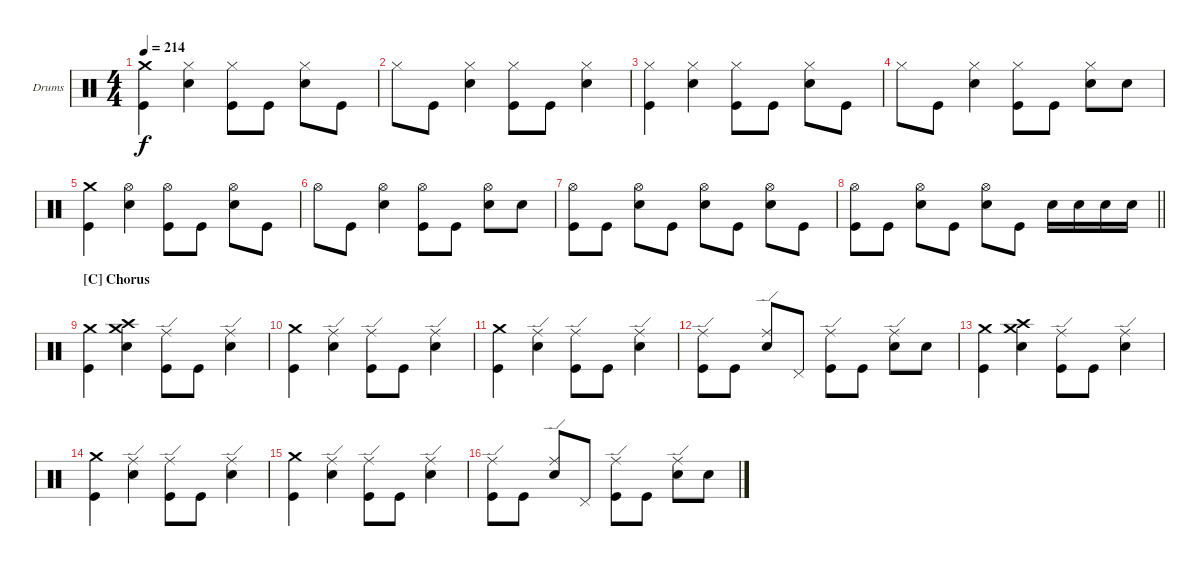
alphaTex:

\bracketExtendMode groupsimilarinstruments
\firstSystemTrackNameOrientation horizontal
\otherSystemsTrackNameOrientation horizontal
\track ("Drumkit" "Drums") {instrument percussion}
\staff {score}
\articulation defaults
\ts (4 4)
\tempo 214
\clef neutral
\ks c
("Kick (hit)" "Crash medium (hit)").4{dy f} ("Snare (hit) 2" "Hi-Hat (closed)").4 ("Kick (hit)" "Hi-Hat (closed)").8 "Kick (hit)".8 ("Snare (hit) 2" "Hi-Hat (closed)").8 "Kick (hit)".8 |
"Hi-Hat (closed)".8 "Kick (hit)".8 ("Snare (hit) 2" "Hi-Hat (closed)").4 ("Kick (hit)" "Hi-Hat (closed)").8 "Kick (hit)".8 ("Snare (hit) 2" "Hi-Hat (closed)").4 |
("Kick (hit)" "Hi-Hat (closed)").4 ("Snare (hit) 2" "Hi-Hat (closed)").4 ("Kick (hit)" "Hi-Hat (closed)").8 "Kick (hit)".8 ("Snare (hit) 2" "Hi-Hat (closed)").8 "Kick (hit)".8 |
"Hi-Hat (closed)".8 "Kick (hit)".8 ("Snare (hit) 2" "Hi-Hat (closed)").4 ("Kick (hit)" "Hi-Hat (closed)").8 "Kick (hit)".8 ("Snare (hit) 2" "Hi-Hat (closed)").8 "Snare (hit) 2".8 |
("Kick (hit)" "Crash medium (hit)").4 ("Snare (hit) 2" "Hi-Hat (open)").4 ("Kick (hit)" "Hi-Hat (open)").8 "Kick (hit)".8 ("Snare (hit) 2" "Hi-Hat (open)").8 "Kick (hit)".8 |
"Hi-Hat (open)".8 "Kick (hit)".8 ("Snare (hit) 2" "Hi-Hat (open)").4 ("Kick (hit)" "Hi-Hat (open)").8 "Kick (hit)".8 ("Snare (hit) 2" "Hi-Hat (open)").8 "Snare (hit) 2".8 |
("Hi-Hat (open)" "Kick (hit)").8 "Kick (hit)".8 ("Snare (hit) 2" "Hi-Hat (open)").8 "Kick (hit)".8 ("Snare (hit) 2" "Hi-Hat (open)").8 "Kick (hit)".8 ("Snare (hit) 2" "Hi-Hat (open)").8 "Kick (hit)".8 |
\barLineRight lightlight
("Kick (hit)" "Hi-Hat (open)").8 "Kick (hit)".8 ("Snare (hit) 2" "Hi-Hat (open)").8 "Kick (hit)".8 ("Snare (hit) 2" "Hi-Hat (open)").8 "Kick (hit)".8 "Snare (hit) 2".16 "Snare (hit) 2".16 "Snare (hit) 2".16 "Snare (hit) 2".16 |
\section ("C" "Chorus")
("Crash medium (hit)" "Kick (hit)").4 ("Snare (hit) 2" "Crash medium (hit)" "Crash high (hit)").4 ("Ride (edge)" "Kick (hit)").8 "Kick (hit)".8 ("Ride (edge)" "Snare (hit) 2").4 |
("Crash medium (hit)" "Kick (hit)").4 ("Ride (edge)" "Snare (hit) 2").4 ("Ride (edge)" "Kick (hit)").8 "Kick (hit)".8 ("Ride (edge)" "Snare (hit) 2").4 |
("Crash medium (hit)" "Kick (hit)").4 ("Ride (edge)" "Snare (hit) 2").4 ("Ride (edge)" "Kick (hit)").8 "Kick (hit)".8 ("Ride (edge)" "Snare (hit) 2").4 |
("Ride (edge)" "Kick (hit)").8 "Kick (hit)".8 ("Snare (hit) 2" "Ride (edge)").8 "Pedal Hi-Hat (hit)".8 ("Kick (hit)" "Ride (edge)").8 "Kick (hit)".8 ("Snare (hit) 2" "Ride (edge)").8 "Snare (hit) 2".8 |
("Crash medium (hit)" "Kick (hit)").4 ("Snare (hit) 2" "Crash medium (hit)" "Crash high (hit)").4 ("Ride (edge)" "Kick (hit)").8 "Kick (hit)".8 ("Ride (edge)" "Snare (hit) 2").4 |
("Crash medium (hit)" "Kick (hit)").4 ("Ride (edge)" "Snare (hit) 2").4 ("Ride (edge)" "Kick (hit)").8 "Kick (hit)".8 ("Ride (edge)" "Snare (hit) 2").4 |
("Crash medium (hit)" "Kick (hit)").4 ("Ride (edge)" "Snare (hit) 2").4 ("Ride (edge)" "Kick (hit)").8 "Kick (hit)".8 ("Ride (edge)" "Snare (hit) 2").4 |
("Ride (edge)" "Kick (hit)").8 "Kick (hit)".8 ("Snare (hit) 2" "Ride (edge)").8 "Pedal Hi-Hat (hit)".8 ("Kick (hit)" "Ride (edge)").8 "Kick (hit)".8 ("Snare (hit) 2" "Ride (edge)").8 "Snare (hit) 2".8
